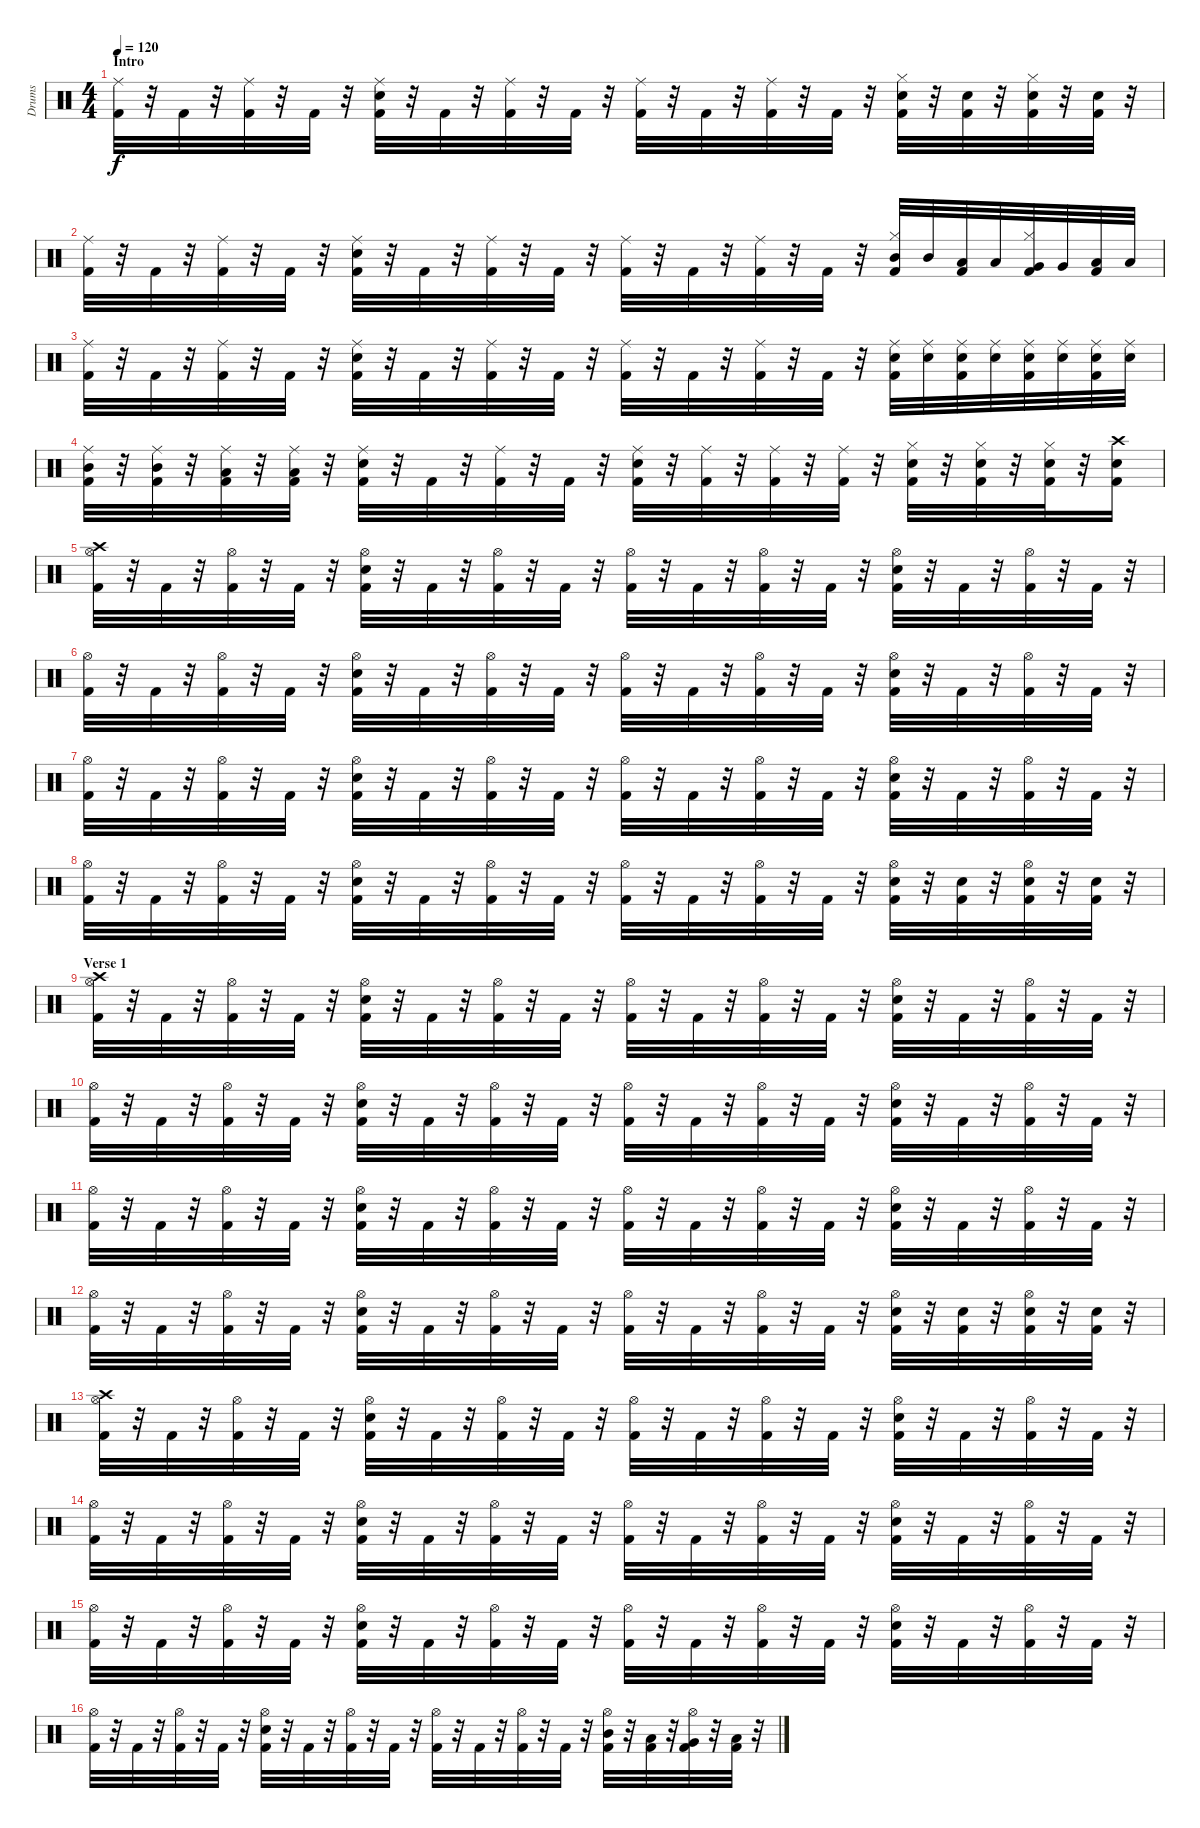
\track ("Drums" "Drums") {instrument percussion}
\staff {score}
\articulation defaults
\ts (4 4)
\section ("" "Intro")
\tempo 120
\clef neutral
\ks c
("Ride (middle)" "Kick (hit) 2").32{dy f} r.32 "Kick (hit) 2".32 r.32 ("Ride (middle)" "Kick (hit) 2").32 r.32 "Kick (hit) 2".32 r.32 ("Ride (middle)" "Snare (hit) 2" "Kick (hit) 2").32 r.32 "Kick (hit) 2".32 r.32 ("Ride (middle)" "Kick (hit) 2").32 r.32 "Kick (hit) 2".32 r.32 ("Ride (middle)" "Kick (hit) 2").32 r.32 "Kick (hit) 2".32 r.32 ("Ride (middle)" "Kick (hit) 2").32 r.32 "Kick (hit) 2".32 r.32 ("Hi-Hat (closed)" "Snare (hit) 2" "Kick (hit) 2").32 r.32 ("Snare (hit) 2" "Kick (hit) 2").32 r.32 ("Hi-Hat (closed)" "Snare (hit) 2" "Kick (hit) 2").32 r.32 ("Snare (hit) 2" "Kick (hit) 2").32 r.32 |
("Ride (middle)" "Kick (hit) 2").32 r.32 "Kick (hit) 2".32 r.32 ("Ride (middle)" "Kick (hit) 2").32 r.32 "Kick (hit) 2".32 r.32 ("Ride (middle)" "Snare (hit) 2" "Kick (hit) 2").32 r.32 "Kick (hit) 2".32 r.32 ("Ride (middle)" "Kick (hit) 2").32 r.32 "Kick (hit) 2".32 r.32 ("Ride (middle)" "Kick (hit) 2").32 r.32 "Kick (hit) 2".32 r.32 ("Ride (middle)" "Kick (hit) 2").32 r.32 "Kick (hit) 2".32 r.32 ("Hi-Hat (closed)" "Mid Tom (hit)" "Kick (hit) 2").32 "Mid Tom (hit)".32 ("Low Tom (hit)" "Kick (hit) 2").32 "Low Tom (hit)".32 ("Hi-Hat (closed)" "Very Low Tom (hit)" "Kick (hit) 2").32 "Very Low Tom (hit)".32 ("Low Floor Tom (hit)" "Kick (hit) 2").32 "Low Floor Tom (hit)".32 |
("Ride (middle)" "Kick (hit) 2").32 r.32 "Kick (hit) 2".32 r.32 ("Ride (middle)" "Kick (hit) 2").32 r.32 "Kick (hit) 2".32 r.32 ("Ride (middle)" "Snare (hit) 2" "Kick (hit) 2").32 r.32 "Kick (hit) 2".32 r.32 ("Ride (middle)" "Kick (hit) 2").32 r.32 "Kick (hit) 2".32 r.32 ("Ride (middle)" "Kick (hit) 2").32 r.32 "Kick (hit) 2".32 r.32 ("Ride (middle)" "Kick (hit) 2").32 r.32 "Kick (hit) 2".32 r.32 ("Ride (middle)" "Snare (hit) 2" "Kick (hit) 2").32 ("Ride (middle)" "Snare (hit) 2").32 ("Ride (middle)" "Snare (hit) 2" "Kick (hit) 2").32 ("Ride (middle)" "Snare (hit) 2").32 ("Ride (middle)" "Snare (hit) 2" "Kick (hit) 2").32 ("Ride (middle)" "Snare (hit) 2").32 ("Ride (middle)" "Snare (hit) 2" "Kick (hit) 2").32 ("Ride (middle)" "Snare (hit) 2").32 |
("Ride (middle)" "Mid Tom (hit)" "Kick (hit) 2").32 r.32 ("Ride (middle)" "Mid Tom (hit)" "Kick (hit) 2").32 r.32 ("Ride (middle)" "Low Tom (hit)" "Kick (hit) 2").32 r.32 ("Ride (middle)" "Low Tom (hit)" "Kick (hit) 2").32 r.32 ("Ride (middle)" "Snare (hit) 2" "Kick (hit) 2").32 r.32 "Kick (hit) 2".32 r.32 ("Ride (middle)" "Kick (hit) 2").32 r.32 "Kick (hit) 2".32 r.32 ("Ride (middle)" "Snare (hit) 2" "Kick (hit) 2").32 r.32 ("Ride (middle)" "Kick (hit) 2").32 r.32 ("Ride (middle)" "Kick (hit) 2").32 r.32 ("Ride (middle)" "Kick (hit) 2").32 r.32 ("Hi-Hat (closed)" "Snare (hit) 2" "Kick (hit) 2").32 r.32 ("Hi-Hat (closed)" "Snare (hit) 2" "Kick (hit) 2").32 r.32 ("Hi-Hat (closed)" "Snare (hit) 2" "Kick (hit) 2").32 r.32 ("Crash high (hit)" "Snare (hit) 2" "Kick (hit) 2").16 |
("Crash high (hit)" "Hi-Hat (open)" "Kick (hit) 2").32 r.32 "Kick (hit) 2".32 r.32 ("Hi-Hat (open)" "Kick (hit) 2").32 r.32 "Kick (hit) 2".32 r.32 ("Hi-Hat (open)" "Snare (hit) 2" "Kick (hit) 2").32 r.32 "Kick (hit) 2".32 r.32 ("Hi-Hat (open)" "Kick (hit) 2").32 r.32 "Kick (hit) 2".32 r.32 ("Hi-Hat (open)" "Kick (hit) 2").32 r.32 "Kick (hit) 2".32 r.32 ("Hi-Hat (open)" "Kick (hit) 2").32 r.32 "Kick (hit) 2".32 r.32 ("Hi-Hat (open)" "Snare (hit) 2" "Kick (hit) 2").32 r.32 "Kick (hit) 2".32 r.32 ("Hi-Hat (open)" "Kick (hit) 2").32 r.32 "Kick (hit) 2".32 r.32 |
("Hi-Hat (open)" "Kick (hit) 2").32 r.32 "Kick (hit) 2".32 r.32 ("Hi-Hat (open)" "Kick (hit) 2").32 r.32 "Kick (hit) 2".32 r.32 ("Hi-Hat (open)" "Snare (hit) 2" "Kick (hit) 2").32 r.32 "Kick (hit) 2".32 r.32 ("Hi-Hat (open)" "Kick (hit) 2").32 r.32 "Kick (hit) 2".32 r.32 ("Hi-Hat (open)" "Kick (hit) 2").32 r.32 "Kick (hit) 2".32 r.32 ("Hi-Hat (open)" "Kick (hit) 2").32 r.32 "Kick (hit) 2".32 r.32 ("Hi-Hat (open)" "Snare (hit) 2" "Kick (hit) 2").32 r.32 "Kick (hit) 2".32 r.32 ("Hi-Hat (open)" "Kick (hit) 2").32 r.32 "Kick (hit) 2".32 r.32 |
("Hi-Hat (open)" "Kick (hit) 2").32 r.32 "Kick (hit) 2".32 r.32 ("Hi-Hat (open)" "Kick (hit) 2").32 r.32 "Kick (hit) 2".32 r.32 ("Hi-Hat (open)" "Snare (hit) 2" "Kick (hit) 2").32 r.32 "Kick (hit) 2".32 r.32 ("Hi-Hat (open)" "Kick (hit) 2").32 r.32 "Kick (hit) 2".32 r.32 ("Hi-Hat (open)" "Kick (hit) 2").32 r.32 "Kick (hit) 2".32 r.32 ("Hi-Hat (open)" "Kick (hit) 2").32 r.32 "Kick (hit) 2".32 r.32 ("Hi-Hat (open)" "Snare (hit) 2" "Kick (hit) 2").32 r.32 "Kick (hit) 2".32 r.32 ("Hi-Hat (open)" "Kick (hit) 2").32 r.32 "Kick (hit) 2".32 r.32 |
("Hi-Hat (open)" "Kick (hit) 2").32 r.32 "Kick (hit) 2".32 r.32 ("Hi-Hat (open)" "Kick (hit) 2").32 r.32 "Kick (hit) 2".32 r.32 ("Hi-Hat (open)" "Snare (hit) 2" "Kick (hit) 2").32 r.32 "Kick (hit) 2".32 r.32 ("Hi-Hat (open)" "Kick (hit) 2").32 r.32 "Kick (hit) 2".32 r.32 ("Hi-Hat (open)" "Kick (hit) 2").32 r.32 "Kick (hit) 2".32 r.32 ("Hi-Hat (open)" "Kick (hit) 2").32 r.32 "Kick (hit) 2".32 r.32 ("Hi-Hat (open)" "Snare (hit) 2" "Kick (hit) 2").32 r.32 ("Snare (hit) 2" "Kick (hit) 2").32 r.32 ("Hi-Hat (open)" "Snare (hit) 2" "Kick (hit) 2").32 r.32 ("Snare (hit) 2" "Kick (hit) 2").32 r.32 |
\section ("" "Verse 1")
("Crash high (hit)" "Hi-Hat (open)" "Kick (hit) 2").32 r.32 "Kick (hit) 2".32 r.32 ("Hi-Hat (open)" "Kick (hit) 2").32 r.32 "Kick (hit) 2".32 r.32 ("Hi-Hat (open)" "Snare (hit) 2" "Kick (hit) 2").32 r.32 "Kick (hit) 2".32 r.32 ("Hi-Hat (open)" "Kick (hit) 2").32 r.32 "Kick (hit) 2".32 r.32 ("Hi-Hat (open)" "Kick (hit) 2").32 r.32 "Kick (hit) 2".32 r.32 ("Hi-Hat (open)" "Kick (hit) 2").32 r.32 "Kick (hit) 2".32 r.32 ("Hi-Hat (open)" "Snare (hit) 2" "Kick (hit) 2").32 r.32 "Kick (hit) 2".32 r.32 ("Hi-Hat (open)" "Kick (hit) 2").32 r.32 "Kick (hit) 2".32 r.32 |
("Hi-Hat (open)" "Kick (hit) 2").32 r.32 "Kick (hit) 2".32 r.32 ("Hi-Hat (open)" "Kick (hit) 2").32 r.32 "Kick (hit) 2".32 r.32 ("Hi-Hat (open)" "Snare (hit) 2" "Kick (hit) 2").32 r.32 "Kick (hit) 2".32 r.32 ("Hi-Hat (open)" "Kick (hit) 2").32 r.32 "Kick (hit) 2".32 r.32 ("Hi-Hat (open)" "Kick (hit) 2").32 r.32 "Kick (hit) 2".32 r.32 ("Hi-Hat (open)" "Kick (hit) 2").32 r.32 "Kick (hit) 2".32 r.32 ("Hi-Hat (open)" "Snare (hit) 2" "Kick (hit) 2").32 r.32 "Kick (hit) 2".32 r.32 ("Hi-Hat (open)" "Kick (hit) 2").32 r.32 "Kick (hit) 2".32 r.32 |
("Hi-Hat (open)" "Kick (hit) 2").32 r.32 "Kick (hit) 2".32 r.32 ("Hi-Hat (open)" "Kick (hit) 2").32 r.32 "Kick (hit) 2".32 r.32 ("Hi-Hat (open)" "Snare (hit) 2" "Kick (hit) 2").32 r.32 "Kick (hit) 2".32 r.32 ("Hi-Hat (open)" "Kick (hit) 2").32 r.32 "Kick (hit) 2".32 r.32 ("Hi-Hat (open)" "Kick (hit) 2").32 r.32 "Kick (hit) 2".32 r.32 ("Hi-Hat (open)" "Kick (hit) 2").32 r.32 "Kick (hit) 2".32 r.32 ("Hi-Hat (open)" "Snare (hit) 2" "Kick (hit) 2").32 r.32 "Kick (hit) 2".32 r.32 ("Hi-Hat (open)" "Kick (hit) 2").32 r.32 "Kick (hit) 2".32 r.32 |
("Hi-Hat (open)" "Kick (hit) 2").32 r.32 "Kick (hit) 2".32 r.32 ("Hi-Hat (open)" "Kick (hit) 2").32 r.32 "Kick (hit) 2".32 r.32 ("Hi-Hat (open)" "Snare (hit) 2" "Kick (hit) 2").32 r.32 "Kick (hit) 2".32 r.32 ("Hi-Hat (open)" "Kick (hit) 2").32 r.32 "Kick (hit) 2".32 r.32 ("Hi-Hat (open)" "Kick (hit) 2").32 r.32 "Kick (hit) 2".32 r.32 ("Hi-Hat (open)" "Kick (hit) 2").32 r.32 "Kick (hit) 2".32 r.32 ("Hi-Hat (open)" "Snare (hit) 2" "Kick (hit) 2").32 r.32 ("Snare (hit) 2" "Kick (hit) 2").32 r.32 ("Hi-Hat (open)" "Snare (hit) 2" "Kick (hit) 2").32 r.32 ("Snare (hit) 2" "Kick (hit) 2").32 r.32 |
("Crash high (hit)" "Hi-Hat (open)" "Kick (hit) 2").32 r.32 "Kick (hit) 2".32 r.32 ("Hi-Hat (open)" "Kick (hit) 2").32 r.32 "Kick (hit) 2".32 r.32 ("Hi-Hat (open)" "Snare (hit) 2" "Kick (hit) 2").32 r.32 "Kick (hit) 2".32 r.32 ("Hi-Hat (open)" "Kick (hit) 2").32 r.32 "Kick (hit) 2".32 r.32 ("Hi-Hat (open)" "Kick (hit) 2").32 r.32 "Kick (hit) 2".32 r.32 ("Hi-Hat (open)" "Kick (hit) 2").32 r.32 "Kick (hit) 2".32 r.32 ("Hi-Hat (open)" "Snare (hit) 2" "Kick (hit) 2").32 r.32 "Kick (hit) 2".32 r.32 ("Hi-Hat (open)" "Kick (hit) 2").32 r.32 "Kick (hit) 2".32 r.32 |
("Hi-Hat (open)" "Kick (hit) 2").32 r.32 "Kick (hit) 2".32 r.32 ("Hi-Hat (open)" "Kick (hit) 2").32 r.32 "Kick (hit) 2".32 r.32 ("Hi-Hat (open)" "Snare (hit) 2" "Kick (hit) 2").32 r.32 "Kick (hit) 2".32 r.32 ("Hi-Hat (open)" "Kick (hit) 2").32 r.32 "Kick (hit) 2".32 r.32 ("Hi-Hat (open)" "Kick (hit) 2").32 r.32 "Kick (hit) 2".32 r.32 ("Hi-Hat (open)" "Kick (hit) 2").32 r.32 "Kick (hit) 2".32 r.32 ("Hi-Hat (open)" "Snare (hit) 2" "Kick (hit) 2").32 r.32 "Kick (hit) 2".32 r.32 ("Hi-Hat (open)" "Kick (hit) 2").32 r.32 "Kick (hit) 2".32 r.32 |
("Hi-Hat (open)" "Kick (hit) 2").32 r.32 "Kick (hit) 2".32 r.32 ("Hi-Hat (open)" "Kick (hit) 2").32 r.32 "Kick (hit) 2".32 r.32 ("Hi-Hat (open)" "Snare (hit) 2" "Kick (hit) 2").32 r.32 "Kick (hit) 2".32 r.32 ("Hi-Hat (open)" "Kick (hit) 2").32 r.32 "Kick (hit) 2".32 r.32 ("Hi-Hat (open)" "Kick (hit) 2").32 r.32 "Kick (hit) 2".32 r.32 ("Hi-Hat (open)" "Kick (hit) 2").32 r.32 "Kick (hit) 2".32 r.32 ("Hi-Hat (open)" "Snare (hit) 2" "Kick (hit) 2").32 r.32 "Kick (hit) 2".32 r.32 ("Hi-Hat (open)" "Kick (hit) 2").32 r.32 "Kick (hit) 2".32 r.32 |
("Hi-Hat (open)" "Kick (hit) 2").32 r.32 "Kick (hit) 2".32 r.32 ("Hi-Hat (open)" "Kick (hit) 2").32 r.32 "Kick (hit) 2".32 r.32 ("Hi-Hat (open)" "Snare (hit) 2" "Kick (hit) 2").32 r.32 "Kick (hit) 2".32 r.32 ("Hi-Hat (open)" "Kick (hit) 2").32 r.32 "Kick (hit) 2".32 r.32 ("Hi-Hat (open)" "Kick (hit) 2").32 r.32 "Kick (hit) 2".32 r.32 ("Hi-Hat (open)" "Kick (hit) 2").32 r.32 "Kick (hit) 2".32 r.32 ("Hi-Hat (open)" "Mid Tom (hit)" "Kick (hit) 2").32 r.32 ("Low Tom (hit)" "Kick (hit) 2").32 r.32 ("Hi-Hat (open)" "Very Low Tom (hit)" "Kick (hit) 2").32 r.32 ("Low Floor Tom (hit)" "Kick (hit) 2").32 r.32
